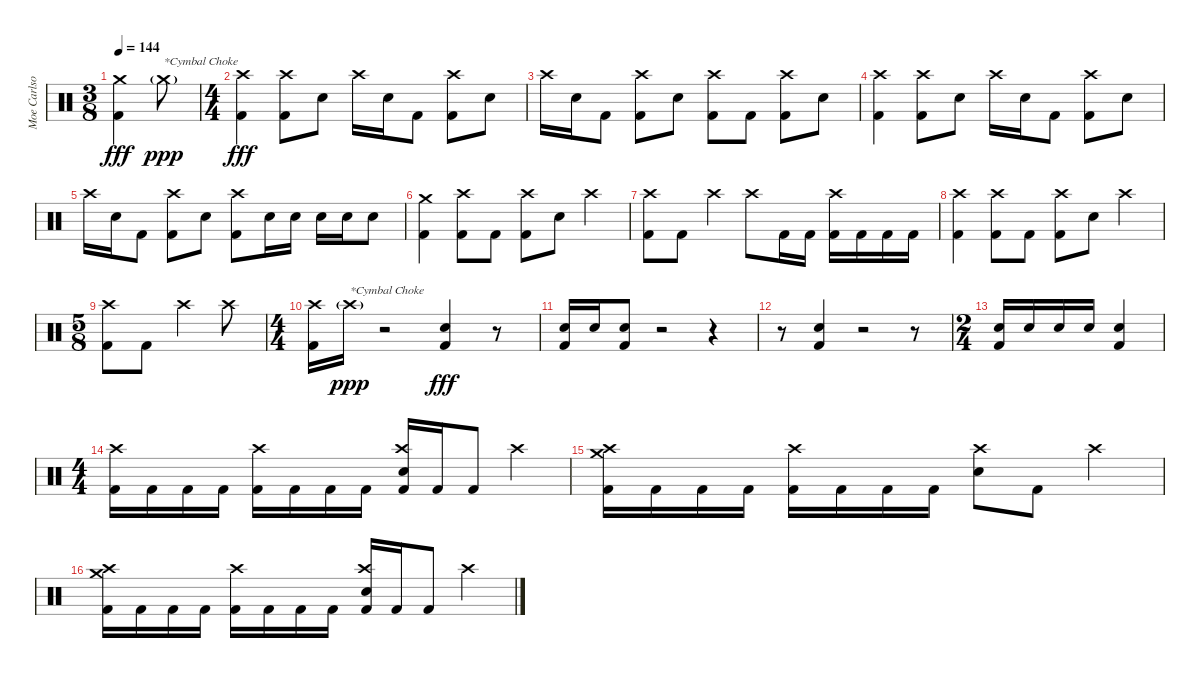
\track ("Moe Carlson" "Moe Carlso") {solo instrument percussion}
\staff {score}
\articulation defaults
\ts (3 8)
\tempo 144
\clef neutral
\ks c
("Crash medium (hit)" "Kick (hit) 2").4{dy fff} "Crash medium (hit)"{g}.8{txt "*Cymbal Choke" dy ppp} |
\ts (4 4)
("Crash high (hit)" "Kick (hit) 2").4{dy fff} ("Crash high (hit)" "Kick (hit) 2").8 "Electric Snare (hit)".8 "Crash high (hit)".16 "Electric Snare (hit)".16 "Kick (hit) 2".8 ("Crash high (hit)" "Kick (hit) 2").8 "Electric Snare (hit)".8 |
"Crash high (hit)".16 "Electric Snare (hit)".16 "Kick (hit) 2".8 ("Crash high (hit)" "Kick (hit) 2").8 "Electric Snare (hit)".8 ("Crash high (hit)" "Kick (hit) 2").8 "Kick (hit) 2".8 ("Crash high (hit)" "Kick (hit) 2").8 "Electric Snare (hit)".8 |
("Crash high (hit)" "Kick (hit) 2").4 ("Crash high (hit)" "Kick (hit) 2").8 "Electric Snare (hit)".8 "Crash high (hit)".16 "Electric Snare (hit)".16 "Kick (hit) 2".8 ("Crash high (hit)" "Kick (hit) 2").8 "Electric Snare (hit)".8 |
"Crash high (hit)".16 "Electric Snare (hit)".16 "Kick (hit) 2".8 ("Crash high (hit)" "Kick (hit) 2").8 "Electric Snare (hit)".8 ("Crash high (hit)" "Kick (hit) 2").8 "Electric Snare (hit)".16 "Electric Snare (hit)".16 "Electric Snare (hit)".16 "Electric Snare (hit)".16 "Electric Snare (hit)".8 |
("Crash medium (hit)" "Kick (hit) 2").4 ("Crash high (hit)" "Kick (hit) 2").8 "Kick (hit) 2".8 ("Crash high (hit)" "Kick (hit) 2").8 "Electric Snare (hit)".8 "Crash high (hit)".4 |
("Crash high (hit)" "Kick (hit) 2").8 "Kick (hit) 2".8 "Crash high (hit)".4 "Crash high (hit)".8 "Kick (hit) 2".16 "Kick (hit) 2".16 ("Crash high (hit)" "Kick (hit) 2").16 "Kick (hit) 2".16 "Kick (hit) 2".16 "Kick (hit) 2".16 |
("Crash high (hit)" "Kick (hit) 2").4 ("Crash high (hit)" "Kick (hit) 2").8 "Kick (hit) 2".8 ("Crash high (hit)" "Kick (hit) 2").8 "Electric Snare (hit)".8 "Crash high (hit)".4 |
\ts (5 8)
("Crash high (hit)" "Kick (hit) 2").8 "Kick (hit) 2".8 "Crash high (hit)".4 "Crash high (hit)".8 |
\ts (4 4)
("Crash high (hit)" "Kick (hit) 2").16 "Crash high (hit)"{g}.16{txt "*Cymbal Choke" dy ppp} r.2 ("Electric Snare (hit)" "Kick (hit) 2").4{dy fff} r.8 |
("Electric Snare (hit)" "Kick (hit) 2").16 "Electric Snare (hit)".16 ("Electric Snare (hit)" "Kick (hit) 2").8 r.2 r.4 |
r.8 ("Electric Snare (hit)" "Kick (hit) 2").4 r.2 r.8 |
\ts (2 4)
("Electric Snare (hit)" "Kick (hit) 2").16 "Electric Snare (hit)".16 "Electric Snare (hit)".16 "Electric Snare (hit)".16 ("Electric Snare (hit)" "Kick (hit) 2").4 |
\ts (4 4)
("Crash high (hit)" "Kick (hit) 2").16 "Kick (hit) 2".16 "Kick (hit) 2".16 "Kick (hit) 2".16 ("Crash high (hit)" "Kick (hit) 2").16 "Kick (hit) 2".16 "Kick (hit) 2".16 "Kick (hit) 2".16 ("Crash high (hit)" "Electric Snare (hit)" "Kick (hit) 2").16 "Kick (hit) 2".16 "Kick (hit) 2".8 "Crash high (hit)".4 |
("Crash high (hit)" "Crash medium (hit)" "Kick (hit) 2").16 "Kick (hit) 2".16 "Kick (hit) 2".16 "Kick (hit) 2".16 ("Crash high (hit)" "Kick (hit) 2").16 "Kick (hit) 2".16 "Kick (hit) 2".16 "Kick (hit) 2".16 ("Crash high (hit)" "Electric Snare (hit)").8 "Kick (hit) 2".8 "Crash high (hit)".4 |
("Crash high (hit)" "Crash medium (hit)" "Kick (hit) 2").16 "Kick (hit) 2".16 "Kick (hit) 2".16 "Kick (hit) 2".16 ("Crash high (hit)" "Kick (hit) 2").16 "Kick (hit) 2".16 "Kick (hit) 2".16 "Kick (hit) 2".16 ("Crash high (hit)" "Electric Snare (hit)" "Kick (hit) 2").16 "Kick (hit) 2".16 "Kick (hit) 2".8 "Crash high (hit)".4
